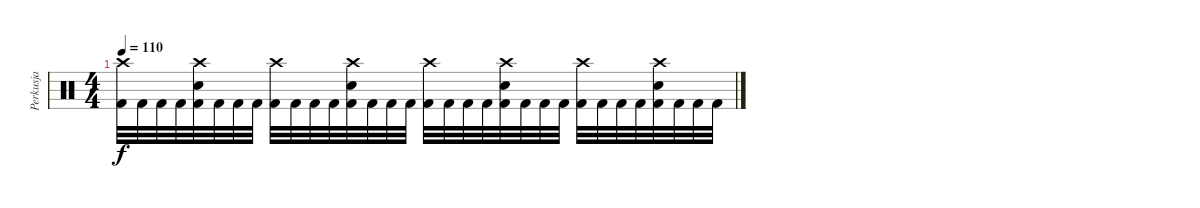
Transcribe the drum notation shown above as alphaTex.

\track ("Perkusja" "Perkusja") {instrument percussion}
\staff {score}
\articulation defaults
\ts (4 4)
\tempo 110
\clef neutral
\ks c
("Crash high (hit)" "Kick (hit) 2").32{dy f} "Kick (hit) 2".32 "Kick (hit) 2".32 "Kick (hit) 2".32 ("Crash high (hit)" "Snare (hit) 2" "Kick (hit) 2").32 "Kick (hit) 2".32 "Kick (hit) 2".32 "Kick (hit) 2".32 ("Crash high (hit)" "Kick (hit) 2").32 "Kick (hit) 2".32 "Kick (hit) 2".32 "Kick (hit) 2".32 ("Crash high (hit)" "Snare (hit) 2" "Kick (hit) 2").32 "Kick (hit) 2".32 "Kick (hit) 2".32 "Kick (hit) 2".32 ("Crash high (hit)" "Kick (hit) 2").32 "Kick (hit) 2".32 "Kick (hit) 2".32 "Kick (hit) 2".32 ("Crash high (hit)" "Snare (hit) 2" "Kick (hit) 2").32 "Kick (hit) 2".32 "Kick (hit) 2".32 "Kick (hit) 2".32 ("Crash high (hit)" "Kick (hit) 2").32 "Kick (hit) 2".32 "Kick (hit) 2".32 "Kick (hit) 2".32 ("Crash high (hit)" "Snare (hit) 2" "Kick (hit) 2").32 "Kick (hit) 2".32 "Kick (hit) 2".32 "Kick (hit) 2".32
